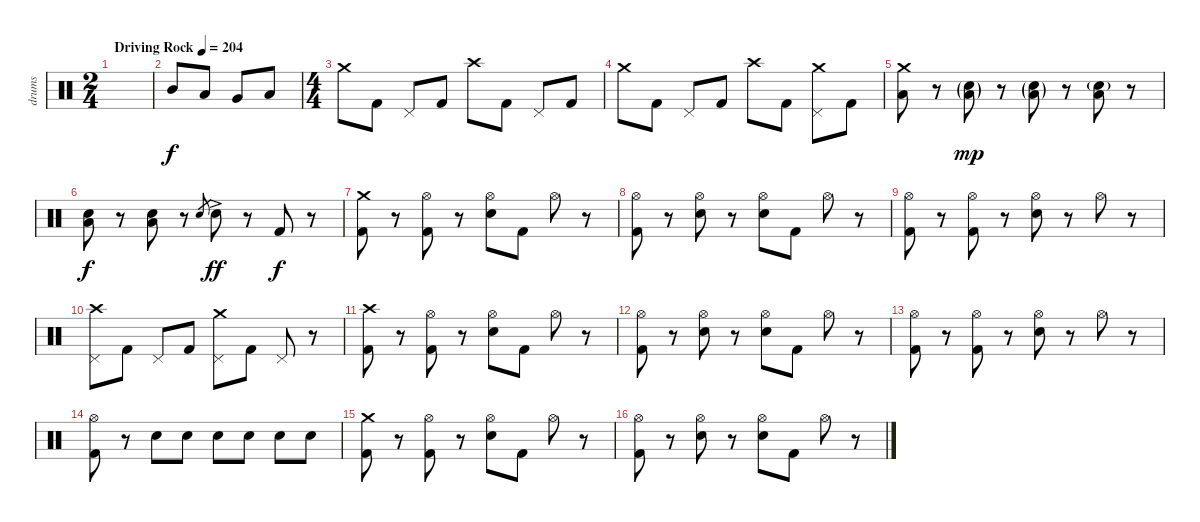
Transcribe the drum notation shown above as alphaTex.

\track ("drums" "drums") {instrument percussion}
\staff {score}
\articulation defaults
\ts (2 4)
\tempo (204 "Driving Rock")
\clef neutral
\ks c
|
"Mid Tom (hit)".8 "Low Tom (hit)".8 "Very Low Tom (hit)".8 "Low Floor Tom (hit)".8 |
\ts (4 4)
"Crash medium (hit)".8 "Kick (hit) 2".8 "Pedal Hi-Hat (hit)".8 "Kick (hit) 2".8 "Crash high (hit)".8 "Kick (hit) 2".8 "Pedal Hi-Hat (hit)".8 "Kick (hit) 2".8 |
"Crash medium (hit)".8 "Kick (hit) 2".8 "Pedal Hi-Hat (hit)".8 "Kick (hit) 2".8 "Crash high (hit)".8 "Kick (hit) 2".8 ("Crash medium (hit)" "Pedal Hi-Hat (hit)").8 "Kick (hit) 2".8 |
("Crash medium (hit)" "Low Floor Tom (hit)").8 r.8 ("Snare (hit) 2"{g} "Low Floor Tom (hit)"{g}).8{dy mp} r.8 ("Snare (hit) 2"{g} "Low Floor Tom (hit)"{g}).8 r.8 ("Snare (hit) 2"{g} "Low Floor Tom (hit)").8 r.8 |
("Snare (hit) 2" "Low Floor Tom (hit)").8{dy f} r.8 ("Snare (hit) 2" "Low Floor Tom (hit)").8 r.8 "Snare (hit) 2".8{gr} "Snare (hit) 2"{ac}.8{dy ff} r.8 "Kick (hit) 2".8{dy f} r.8 |
("Crash medium (hit)" "Kick (hit) 2").8 r.8 ("Hi-Hat (open)" "Kick (hit) 2").8 r.8 ("Hi-Hat (open)" "Snare (hit) 2").8 "Kick (hit) 2".8 "Hi-Hat (open)".8 r.8 |
("Hi-Hat (open)" "Kick (hit) 2").8 r.8 ("Hi-Hat (open)" "Snare (hit) 2").8 r.8 ("Hi-Hat (open)" "Snare (hit) 2").8 "Kick (hit) 2".8 "Hi-Hat (open)".8 r.8 |
("Hi-Hat (open)" "Kick (hit) 2").8 r.8 ("Hi-Hat (open)" "Kick (hit) 2").8 r.8 ("Hi-Hat (open)" "Snare (hit) 2").8 r.8 "Hi-Hat (open)".8 r.8 |
("Crash high (hit)" "Pedal Hi-Hat (hit)").8 "Kick (hit) 2".8 "Pedal Hi-Hat (hit)".8 "Kick (hit) 2".8 ("Crash medium (hit)" "Pedal Hi-Hat (hit)").8 "Kick (hit) 2".8 "Pedal Hi-Hat (hit)".8 r.8 |
("Crash high (hit)" "Kick (hit) 2").8 r.8 ("Hi-Hat (open)" "Kick (hit) 2").8 r.8 ("Hi-Hat (open)" "Snare (hit) 2").8 "Kick (hit) 2".8 "Hi-Hat (open)".8 r.8 |
("Hi-Hat (open)" "Kick (hit) 2").8 r.8 ("Hi-Hat (open)" "Snare (hit) 2").8 r.8 ("Hi-Hat (open)" "Snare (hit) 2").8 "Kick (hit) 2".8 "Hi-Hat (open)".8 r.8 |
("Hi-Hat (open)" "Kick (hit) 2").8 r.8 ("Hi-Hat (open)" "Kick (hit) 2").8 r.8 ("Hi-Hat (open)" "Snare (hit) 2").8 r.8 "Hi-Hat (open)".8 r.8 |
("Hi-Hat (open)" "Kick (hit) 2").8 r.8 "Snare (hit) 2".8 "Snare (hit) 2".8 "Snare (hit) 2".8 "Snare (hit) 2".8 "Snare (hit) 2".8 "Snare (hit) 2".8 |
("Crash medium (hit)" "Kick (hit) 2").8 r.8 ("Hi-Hat (open)" "Kick (hit) 2").8 r.8 ("Hi-Hat (open)" "Snare (hit) 2").8 "Kick (hit) 2".8 "Hi-Hat (open)".8 r.8 |
("Hi-Hat (open)" "Kick (hit) 2").8 r.8 ("Hi-Hat (open)" "Snare (hit) 2").8 r.8 ("Hi-Hat (open)" "Snare (hit) 2").8 "Kick (hit) 2".8 "Hi-Hat (open)".8 r.8
